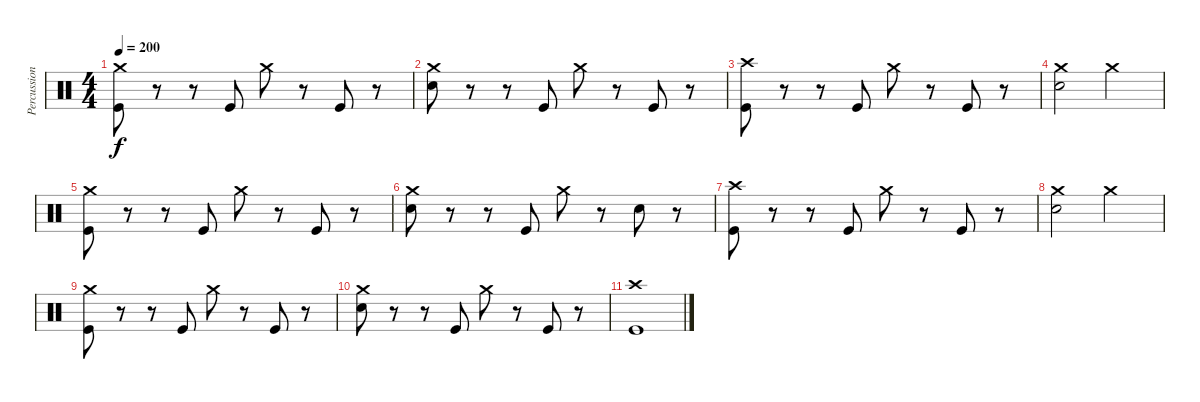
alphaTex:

\track ("Percussion" "Percussion") {instrument percussion}
\staff {score}
\articulation defaults
\ts (4 4)
\tempo 200
\clef neutral
\ks c
("Crash medium (hit)" "Kick (hit)").8{dy f} r.8 r.8 "Kick (hit)".8 "Crash medium (hit)".8 r.8 "Kick (hit)".8 r.8 |
("Crash medium (hit)" "Electric Snare (hit)").8 r.8 r.8 "Kick (hit)".8 "Crash medium (hit)".8 r.8 "Kick (hit)".8 r.8 |
("Crash high (hit)" "Kick (hit)").8 r.8 r.8 "Kick (hit)".8 "Crash medium (hit)".8 r.8 "Kick (hit)".8 r.8 |
("Crash medium (hit)" "Electric Snare (hit)").2 "Crash medium (hit)".2 |
("Crash medium (hit)" "Kick (hit)").8 r.8 r.8 "Kick (hit)".8 "Crash medium (hit)".8 r.8 "Kick (hit)".8 r.8 |
("Crash medium (hit)" "Electric Snare (hit)").8 r.8 r.8 "Kick (hit)".8 "Crash medium (hit)".8 r.8 "Electric Snare (hit)".8 r.8 |
("Crash high (hit)" "Kick (hit)").8 r.8 r.8 "Kick (hit)".8 "Crash medium (hit)".8 r.8 "Kick (hit)".8 r.8 |
("Crash medium (hit)" "Electric Snare (hit)").2 "Crash medium (hit)".2 |
("Crash medium (hit)" "Kick (hit)").8 r.8 r.8 "Kick (hit)".8 "Crash medium (hit)".8 r.8 "Kick (hit)".8 r.8 |
("Crash medium (hit)" "Electric Snare (hit)").8 r.8 r.8 "Kick (hit)".8 "Crash medium (hit)".8 r.8 "Kick (hit)".8 r.8 |
("Crash high (hit)" "Kick (hit)").1
